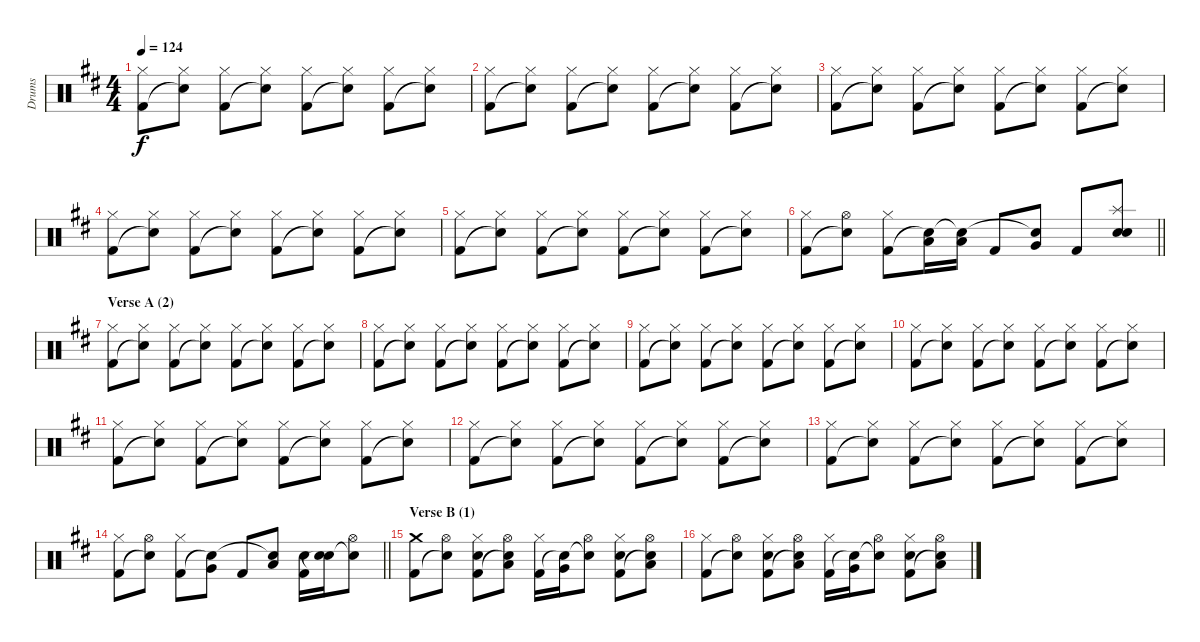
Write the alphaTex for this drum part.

\track ("Drums" "Drums") {instrument percussion}
\staff {score}
\articulation defaults
\ts (4 4)
\tempo 124
\clef neutral
\ks d
("Hi-Hat (closed)" "Kick (hit) 2").8{dy f} ("Hi-Hat (closed)" "Snare (hit)"{t}).8 ("Hi-Hat (closed)" "Kick (hit) 2").8 ("Hi-Hat (closed)" "Snare (hit)"{t}).8 ("Hi-Hat (closed)" "Kick (hit) 2").8 ("Hi-Hat (closed)" "Snare (hit)"{t}).8 ("Hi-Hat (closed)" "Kick (hit) 2").8 ("Hi-Hat (closed)" "Snare (hit)"{t}).8 |
("Hi-Hat (closed)" "Kick (hit) 2").8 ("Hi-Hat (closed)" "Snare (hit)"{t}).8 ("Hi-Hat (closed)" "Kick (hit) 2").8 ("Hi-Hat (closed)" "Snare (hit)"{t}).8 ("Hi-Hat (closed)" "Kick (hit) 2").8 ("Hi-Hat (closed)" "Snare (hit)"{t}).8 ("Hi-Hat (closed)" "Kick (hit) 2").8 ("Hi-Hat (closed)" "Snare (hit)"{t}).8 |
("Hi-Hat (closed)" "Kick (hit) 2").8 ("Hi-Hat (closed)" "Snare (hit)"{t}).8 ("Hi-Hat (closed)" "Kick (hit) 2").8 ("Hi-Hat (closed)" "Snare (hit)"{t}).8 ("Hi-Hat (closed)" "Kick (hit) 2").8 ("Hi-Hat (closed)" "Snare (hit)"{t}).8 ("Hi-Hat (closed)" "Kick (hit) 2").8 ("Hi-Hat (closed)" "Snare (hit)"{t}).8 |
("Hi-Hat (closed)" "Kick (hit) 2").8 ("Hi-Hat (closed)" "Snare (hit)"{t}).8 ("Hi-Hat (closed)" "Kick (hit) 2").8 ("Hi-Hat (closed)" "Snare (hit)"{t}).8 ("Hi-Hat (closed)" "Kick (hit) 2").8 ("Hi-Hat (closed)" "Snare (hit)"{t}).8 ("Hi-Hat (closed)" "Kick (hit) 2").8 ("Hi-Hat (closed)" "Snare (hit)"{t}).8 |
("Hi-Hat (closed)" "Kick (hit) 2").8 ("Hi-Hat (closed)" "Snare (hit)"{t}).8 ("Hi-Hat (closed)" "Kick (hit) 2").8 ("Hi-Hat (closed)" "Snare (hit)"{t}).8 ("Hi-Hat (closed)" "Kick (hit) 2").8 ("Hi-Hat (closed)" "Snare (hit)"{t}).8 ("Hi-Hat (closed)" "Kick (hit) 2").8 ("Hi-Hat (closed)" "Snare (hit)"{t}).8 |
\barLineRight lightlight
("Hi-Hat (closed)" "Kick (hit) 2").8 ("Hi-Hat (open)" "Snare (hit)"{t}).8 ("Hi-Hat (closed)" "Kick (hit) 2").8 ("Low Tom (hit)" "Snare (hit)"{t}).16 ("Low Tom (hit)" "Snare (hit)"{t}).16 "Kick (hit) 2".8 ("Very Low Tom (hit)" "Snare (hit)"{t}).8 "Kick (hit) 2".8 ("Splash (hit)" "Electric Snare (hit)" "Snare (hit)").8 |
\section ("" "Verse A (2)")
("Hi-Hat (closed)" "Kick (hit) 2").8 ("Hi-Hat (closed)" "Snare (hit)"{t}).8 ("Hi-Hat (closed)" "Kick (hit) 2").8 ("Hi-Hat (closed)" "Snare (hit)"{t}).8 ("Hi-Hat (closed)" "Kick (hit) 2").8 ("Hi-Hat (closed)" "Snare (hit)"{t}).8 ("Hi-Hat (closed)" "Kick (hit) 2").8 ("Hi-Hat (closed)" "Snare (hit)"{t}).8 |
("Hi-Hat (closed)" "Kick (hit) 2").8 ("Hi-Hat (closed)" "Snare (hit)"{t}).8 ("Hi-Hat (closed)" "Kick (hit) 2").8 ("Hi-Hat (closed)" "Snare (hit)"{t}).8 ("Hi-Hat (closed)" "Kick (hit) 2").8 ("Hi-Hat (closed)" "Snare (hit)"{t}).8 ("Hi-Hat (closed)" "Kick (hit) 2").8 ("Hi-Hat (closed)" "Snare (hit)"{t}).8 |
("Hi-Hat (closed)" "Kick (hit) 2").8 ("Hi-Hat (closed)" "Snare (hit)"{t}).8 ("Hi-Hat (closed)" "Kick (hit) 2").8 ("Hi-Hat (closed)" "Snare (hit)"{t}).8 ("Hi-Hat (closed)" "Kick (hit) 2").8 ("Hi-Hat (closed)" "Snare (hit)"{t}).8 ("Hi-Hat (closed)" "Kick (hit) 2").8 ("Hi-Hat (closed)" "Snare (hit)"{t}).8 |
("Hi-Hat (closed)" "Kick (hit) 2").8 ("Hi-Hat (closed)" "Snare (hit)"{t}).8 ("Hi-Hat (closed)" "Kick (hit) 2").8 ("Hi-Hat (closed)" "Snare (hit)"{t}).8 ("Hi-Hat (closed)" "Kick (hit) 2").8 ("Hi-Hat (closed)" "Snare (hit)"{t}).8 ("Hi-Hat (closed)" "Kick (hit) 2").8 ("Hi-Hat (closed)" "Snare (hit)"{t}).8 |
("Hi-Hat (closed)" "Kick (hit) 2").8 ("Hi-Hat (closed)" "Snare (hit)"{t}).8 ("Hi-Hat (closed)" "Kick (hit) 2").8 ("Hi-Hat (closed)" "Snare (hit)"{t}).8 ("Hi-Hat (closed)" "Kick (hit) 2").8 ("Hi-Hat (closed)" "Snare (hit)"{t}).8 ("Hi-Hat (closed)" "Kick (hit) 2").8 ("Hi-Hat (closed)" "Snare (hit)"{t}).8 |
("Hi-Hat (closed)" "Kick (hit) 2").8 ("Hi-Hat (closed)" "Snare (hit)"{t}).8 ("Hi-Hat (closed)" "Kick (hit) 2").8 ("Hi-Hat (closed)" "Snare (hit)"{t}).8 ("Hi-Hat (closed)" "Kick (hit) 2").8 ("Hi-Hat (closed)" "Snare (hit)"{t}).8 ("Hi-Hat (closed)" "Kick (hit) 2").8 ("Hi-Hat (closed)" "Snare (hit)"{t}).8 |
("Hi-Hat (closed)" "Kick (hit) 2").8 ("Hi-Hat (closed)" "Snare (hit)"{t}).8 ("Hi-Hat (closed)" "Kick (hit) 2").8 ("Hi-Hat (closed)" "Snare (hit)"{t}).8 ("Hi-Hat (closed)" "Kick (hit) 2").8 ("Hi-Hat (closed)" "Snare (hit)"{t}).8 ("Hi-Hat (closed)" "Kick (hit) 2").8 ("Hi-Hat (closed)" "Snare (hit)"{t}).8 |
\barLineRight lightlight
("Hi-Hat (closed)" "Kick (hit) 2").8 ("Hi-Hat (open)" "Snare (hit)"{t}).8 ("Hi-Hat (closed)" "Kick (hit) 2").8 ("Very Low Tom (hit)" "Snare (hit)"{t}).8 "Kick (hit) 2".8 ("Low Floor Tom (hit)" "Snare (hit)"{t}).8 ("Electric Snare (hit)" "Kick (hit) 2").16 ("Electric Snare (hit)" "Snare (hit)"{t}).16 ("Hi-Hat (open)" "Snare (hit)"{t}).8 |
\section ("" "Verse B (1)")
("Crash medium (hit)" "Kick (hit) 2").8 ("Hi-Hat (open)" "Snare (hit)"{t}).8 ("Hi-Hat (closed)" "Electric Snare (hit)" "Kick (hit) 2").8 ("Hi-Hat (open)" "Low Tom (hit)" "Snare (hit)"{t}).8 ("Hi-Hat (closed)" "Kick (hit) 2").16 ("Very Low Tom (hit)" "Snare (hit)"{t}).16 ("Hi-Hat (open)" "Snare (hit)"{t}).8 ("Hi-Hat (closed)" "Electric Snare (hit)" "Kick (hit) 2").8 ("Hi-Hat (open)" "Low Floor Tom (hit)" "Snare (hit)"{t}).8 |
("Hi-Hat (closed)" "Kick (hit) 2").8 ("Hi-Hat (open)" "Snare (hit)"{t}).8 ("Hi-Hat (closed)" "Electric Snare (hit)" "Kick (hit) 2").8 ("Hi-Hat (open)" "Low Tom (hit)" "Snare (hit)"{t}).8 ("Hi-Hat (closed)" "Kick (hit) 2").16 ("Very Low Tom (hit)" "Snare (hit)"{t}).16 ("Hi-Hat (open)" "Snare (hit)"{t}).8 ("Hi-Hat (closed)" "Electric Snare (hit)" "Kick (hit) 2").8 ("Hi-Hat (open)" "Low Floor Tom (hit)" "Snare (hit)"{t}).8
